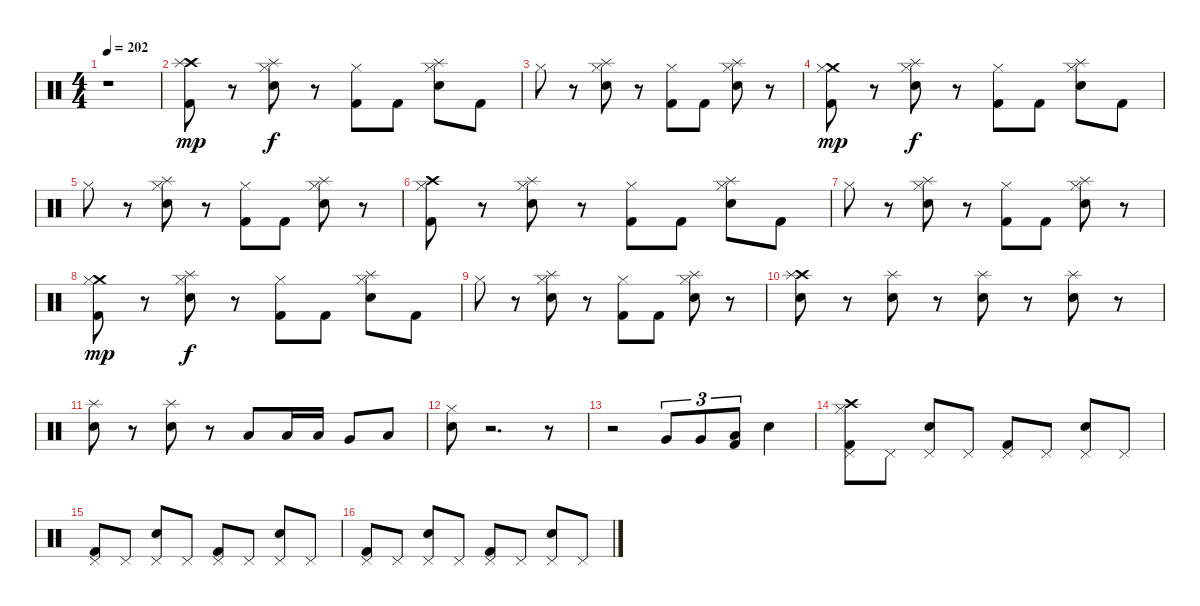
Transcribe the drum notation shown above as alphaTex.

\track "" {instrument percussion}
\staff {score}
\articulation defaults
\ts (4 4)
\tempo 202
\clef neutral
\ks c
r.1{dy mp} |
("Crash high (hit)" "Splash (hit)" "Kick (hit) 2").8 r.8 ("Hi-Hat (closed)" "Splash (hit)" "Electric Snare (hit)").8{dy f} r.8 ("Hi-Hat (closed)" "Kick (hit) 2").8 "Kick (hit) 2".8 ("Hi-Hat (closed)" "Splash (hit)" "Electric Snare (hit)").8 "Kick (hit) 2".8 |
"Hi-Hat (closed)".8 r.8 ("Splash (hit)" "Hi-Hat (closed)" "Electric Snare (hit)").8 r.8 ("Hi-Hat (closed)" "Kick (hit) 2").8 "Kick (hit) 2".8 ("Splash (hit)" "Hi-Hat (closed)" "Electric Snare (hit)").8 r.8 |
("Crash medium (hit)" "Hi-Hat (closed)" "Kick (hit) 2").8{dy mp} r.8 ("Splash (hit)" "Hi-Hat (closed)" "Electric Snare (hit)").8{dy f} r.8 ("Hi-Hat (closed)" "Kick (hit) 2").8 "Kick (hit) 2".8 ("Splash (hit)" "Hi-Hat (closed)" "Electric Snare (hit)").8 "Kick (hit) 2".8 |
"Hi-Hat (closed)".8 r.8 ("Splash (hit)" "Hi-Hat (closed)" "Electric Snare (hit)").8 r.8 ("Hi-Hat (closed)" "Kick (hit) 2").8 "Kick (hit) 2".8 ("Splash (hit)" "Hi-Hat (closed)" "Electric Snare (hit)").8 r.8 |
("Crash high (hit)" "Hi-Hat (closed)" "Kick (hit) 2").8 r.8 ("Splash (hit)" "Hi-Hat (closed)" "Electric Snare (hit)").8 r.8 ("Hi-Hat (closed)" "Kick (hit) 2").8 "Kick (hit) 2".8 ("Splash (hit)" "Hi-Hat (closed)" "Electric Snare (hit)").8 "Kick (hit) 2".8 |
"Hi-Hat (closed)".8 r.8 ("Splash (hit)" "Hi-Hat (closed)" "Electric Snare (hit)").8 r.8 ("Hi-Hat (closed)" "Kick (hit) 2").8 "Kick (hit) 2".8 ("Splash (hit)" "Hi-Hat (closed)" "Electric Snare (hit)").8 r.8 |
("Crash medium (hit)" "Hi-Hat (closed)" "Kick (hit) 2").8{dy mp} r.8 ("Splash (hit)" "Hi-Hat (closed)" "Electric Snare (hit)").8{dy f} r.8 ("Hi-Hat (closed)" "Kick (hit) 2").8 "Kick (hit) 2".8 ("Splash (hit)" "Hi-Hat (closed)" "Electric Snare (hit)").8 "Kick (hit) 2".8 |
"Hi-Hat (closed)".8 r.8 ("Splash (hit)" "Hi-Hat (closed)" "Electric Snare (hit)").8 r.8 ("Hi-Hat (closed)" "Kick (hit) 2").8 "Kick (hit) 2".8 ("Splash (hit)" "Hi-Hat (closed)" "Electric Snare (hit)").8 r.8 |
("Crash high (hit)" "Splash (hit)" "Electric Snare (hit)").8 r.8 ("Splash (hit)" "Electric Snare (hit)").8 r.8 ("Splash (hit)" "Electric Snare (hit)").8 r.8 ("Splash (hit)" "Electric Snare (hit)").8 r.8 |
("Splash (hit)" "Electric Snare (hit)").8 r.8 ("Splash (hit)" "Electric Snare (hit)").8 r.8 "Low Tom (hit)".8 "Low Tom (hit)".16 "Low Tom (hit)".16 "Very Low Tom (hit)".8 "Low Floor Tom (hit)".8 |
("Hi-Hat (closed)" "Electric Snare (hit)").8 r.2{d} r.8 |
r.2 "Very Low Tom (hit)".8{tu (3 2)} "Very Low Tom (hit)".8{tu (3 2)} ("Low Floor Tom (hit)" "Kick (hit) 2").8{tu (3 2)} "Electric Snare (hit)".4 |
("Pedal Hi-Hat (hit)" "Crash high (hit)" "Hi-Hat (closed)" "Kick (hit) 2").8 "Pedal Hi-Hat (hit)".8 ("Pedal Hi-Hat (hit)" "Electric Snare (hit)").8 "Pedal Hi-Hat (hit)".8 ("Pedal Hi-Hat (hit)" "Kick (hit) 2").8 "Pedal Hi-Hat (hit)".8 ("Pedal Hi-Hat (hit)" "Electric Snare (hit)").8 "Pedal Hi-Hat (hit)".8 |
("Pedal Hi-Hat (hit)" "Kick (hit) 2").8 "Pedal Hi-Hat (hit)".8 ("Pedal Hi-Hat (hit)" "Electric Snare (hit)").8 "Pedal Hi-Hat (hit)".8 ("Pedal Hi-Hat (hit)" "Kick (hit) 2").8 "Pedal Hi-Hat (hit)".8 ("Pedal Hi-Hat (hit)" "Electric Snare (hit)").8 "Pedal Hi-Hat (hit)".8 |
("Pedal Hi-Hat (hit)" "Kick (hit) 2").8 "Pedal Hi-Hat (hit)".8 ("Pedal Hi-Hat (hit)" "Electric Snare (hit)").8 "Pedal Hi-Hat (hit)".8 ("Pedal Hi-Hat (hit)" "Kick (hit) 2").8 "Pedal Hi-Hat (hit)".8 ("Pedal Hi-Hat (hit)" "Electric Snare (hit)").8 "Pedal Hi-Hat (hit)".8
